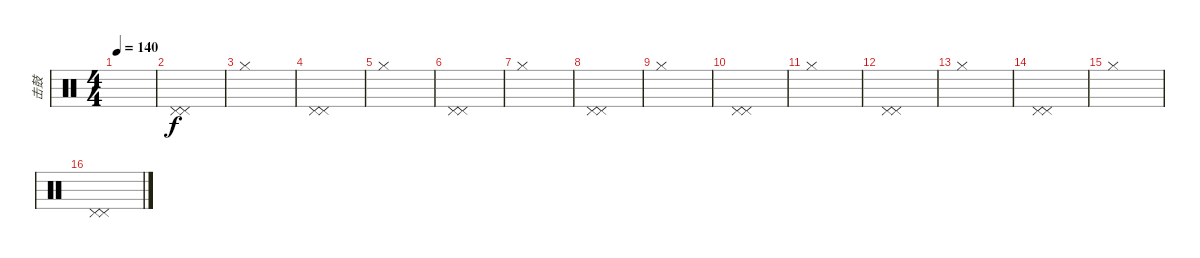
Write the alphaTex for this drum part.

\track ("击鼓" "击鼓") {instrument percussion}
\staff {score}
\articulation defaults
\ts (4 4)
\tempo 140
\clef neutral
\ks c
|
("Pedal Hi-Hat (hit)" "Pedal Hi-Hat (hit)").1 |
"Hi-Hat (closed)".1 |
("Pedal Hi-Hat (hit)" "Pedal Hi-Hat (hit)").1 |
"Hi-Hat (closed)".1 |
("Pedal Hi-Hat (hit)" "Pedal Hi-Hat (hit)").1 |
"Hi-Hat (closed)".1 |
("Pedal Hi-Hat (hit)" "Pedal Hi-Hat (hit)").1 |
"Hi-Hat (closed)".1 |
("Pedal Hi-Hat (hit)" "Pedal Hi-Hat (hit)").1 |
"Hi-Hat (closed)".1 |
("Pedal Hi-Hat (hit)" "Pedal Hi-Hat (hit)").1 |
"Hi-Hat (closed)".1 |
("Pedal Hi-Hat (hit)" "Pedal Hi-Hat (hit)").1 |
"Hi-Hat (closed)".1 |
("Pedal Hi-Hat (hit)" "Pedal Hi-Hat (hit)").1
